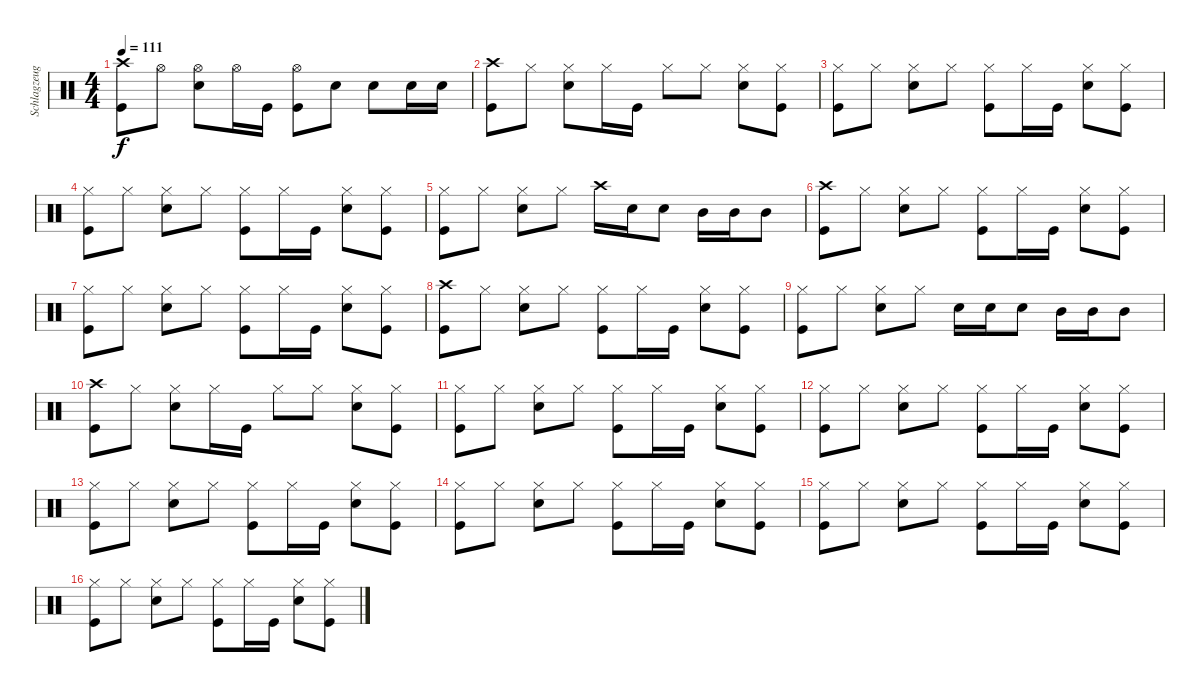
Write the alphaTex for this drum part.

\track ("Schlagzeug" "Schlagzeug") {solo instrument percussion}
\staff {score}
\articulation defaults
\ts (4 4)
\tempo 111
\clef neutral
\ks c
("Crash high (hit)" "Kick (hit)").8{dy f} "Hi-Hat (open)".8 ("Hi-Hat (open)" "Snare (hit) 2").8 "Hi-Hat (open)".16 "Kick (hit)".16 ("Kick (hit)" "Hi-Hat (open)").8 "Snare (hit) 2".8 "Snare (hit) 2".8 "Snare (hit) 2".16 "Snare (hit) 2".16 |
("Crash high (hit)" "Kick (hit)").8 "Hi-Hat (closed)".8 ("Hi-Hat (closed)" "Snare (hit) 2").8 "Hi-Hat (closed)".16 "Kick (hit)".16 "Hi-Hat (closed)".8 "Hi-Hat (closed)".8 ("Hi-Hat (closed)" "Snare (hit) 2").8 ("Kick (hit)" "Hi-Hat (closed)").8 |
("Kick (hit)" "Hi-Hat (closed)").8 "Hi-Hat (closed)".8 ("Hi-Hat (closed)" "Snare (hit) 2").8 "Hi-Hat (closed)".8 ("Hi-Hat (closed)" "Kick (hit)").8 "Hi-Hat (closed)".16 "Kick (hit)".16 ("Hi-Hat (closed)" "Snare (hit) 2").8 ("Hi-Hat (closed)" "Kick (hit)").8 |
("Kick (hit)" "Hi-Hat (closed)").8 "Hi-Hat (closed)".8 ("Hi-Hat (closed)" "Snare (hit) 2").8 "Hi-Hat (closed)".8 ("Hi-Hat (closed)" "Kick (hit)").8 "Hi-Hat (closed)".16 "Kick (hit)".16 ("Hi-Hat (closed)" "Snare (hit) 2").8 ("Hi-Hat (closed)" "Kick (hit)").8 |
("Kick (hit)" "Hi-Hat (closed)").8 "Hi-Hat (closed)".8 ("Hi-Hat (closed)" "Snare (hit) 2").8 "Hi-Hat (closed)".8 "Crash high (hit)".16 "Snare (hit) 2".16 "Snare (hit) 2".8 "Mid Tom (hit)".16 "Mid Tom (hit)".16 "Mid Tom (hit)".8 |
("Kick (hit)" "Crash high (hit)").8 "Hi-Hat (closed)".8 ("Hi-Hat (closed)" "Snare (hit) 2").8 "Hi-Hat (closed)".8 ("Hi-Hat (closed)" "Kick (hit)").8 "Hi-Hat (closed)".16 "Kick (hit)".16 ("Hi-Hat (closed)" "Snare (hit) 2").8 ("Hi-Hat (closed)" "Kick (hit)").8 |
("Kick (hit)" "Hi-Hat (closed)").8 "Hi-Hat (closed)".8 ("Hi-Hat (closed)" "Snare (hit) 2").8 "Hi-Hat (closed)".8 ("Hi-Hat (closed)" "Kick (hit)").8 "Hi-Hat (closed)".16 "Kick (hit)".16 ("Hi-Hat (closed)" "Snare (hit) 2").8 ("Hi-Hat (closed)" "Kick (hit)").8 |
("Kick (hit)" "Crash high (hit)").8 "Hi-Hat (closed)".8 ("Hi-Hat (closed)" "Snare (hit) 2").8 "Hi-Hat (closed)".8 ("Hi-Hat (closed)" "Kick (hit)").8 "Hi-Hat (closed)".16 "Kick (hit)".16 ("Hi-Hat (closed)" "Snare (hit) 2").8 ("Hi-Hat (closed)" "Kick (hit)").8 |
("Kick (hit)" "Hi-Hat (closed)").8 "Hi-Hat (closed)".8 ("Hi-Hat (closed)" "Snare (hit) 2").8 "Hi-Hat (closed)".8 "Snare (hit) 2".16 "Snare (hit) 2".16 "Snare (hit) 2".8 "Mid Tom (hit)".16 "Mid Tom (hit)".16 "Mid Tom (hit)".8 |
("Crash high (hit)" "Kick (hit)").8 "Hi-Hat (closed)".8 ("Hi-Hat (closed)" "Snare (hit) 2").8 "Hi-Hat (closed)".16 "Kick (hit)".16 "Hi-Hat (closed)".8 "Hi-Hat (closed)".8 ("Hi-Hat (closed)" "Snare (hit) 2").8 ("Kick (hit)" "Hi-Hat (closed)").8 |
("Kick (hit)" "Hi-Hat (closed)").8 "Hi-Hat (closed)".8 ("Hi-Hat (closed)" "Snare (hit) 2").8 "Hi-Hat (closed)".8 ("Hi-Hat (closed)" "Kick (hit)").8 "Hi-Hat (closed)".16 "Kick (hit)".16 ("Hi-Hat (closed)" "Snare (hit) 2").8 ("Hi-Hat (closed)" "Kick (hit)").8 |
("Kick (hit)" "Hi-Hat (closed)").8 "Hi-Hat (closed)".8 ("Hi-Hat (closed)" "Snare (hit) 2").8 "Hi-Hat (closed)".8 ("Hi-Hat (closed)" "Kick (hit)").8 "Hi-Hat (closed)".16 "Kick (hit)".16 ("Hi-Hat (closed)" "Snare (hit) 2").8 ("Hi-Hat (closed)" "Kick (hit)").8 |
("Kick (hit)" "Hi-Hat (closed)").8 "Hi-Hat (closed)".8 ("Hi-Hat (closed)" "Snare (hit) 2").8 "Hi-Hat (closed)".8 ("Hi-Hat (closed)" "Kick (hit)").8 "Hi-Hat (closed)".16 "Kick (hit)".16 ("Hi-Hat (closed)" "Snare (hit) 2").8 ("Hi-Hat (closed)" "Kick (hit)").8 |
("Kick (hit)" "Hi-Hat (closed)").8 "Hi-Hat (closed)".8 ("Hi-Hat (closed)" "Snare (hit) 2").8 "Hi-Hat (closed)".8 ("Hi-Hat (closed)" "Kick (hit)").8 "Hi-Hat (closed)".16 "Kick (hit)".16 ("Hi-Hat (closed)" "Snare (hit) 2").8 ("Hi-Hat (closed)" "Kick (hit)").8 |
("Kick (hit)" "Hi-Hat (closed)").8 "Hi-Hat (closed)".8 ("Hi-Hat (closed)" "Snare (hit) 2").8 "Hi-Hat (closed)".8 ("Hi-Hat (closed)" "Kick (hit)").8 "Hi-Hat (closed)".16 "Kick (hit)".16 ("Hi-Hat (closed)" "Snare (hit) 2").8 ("Hi-Hat (closed)" "Kick (hit)").8 |
("Kick (hit)" "Hi-Hat (closed)").8 "Hi-Hat (closed)".8 ("Hi-Hat (closed)" "Snare (hit) 2").8 "Hi-Hat (closed)".8 ("Hi-Hat (closed)" "Kick (hit)").8 "Hi-Hat (closed)".16 "Kick (hit)".16 ("Hi-Hat (closed)" "Snare (hit) 2").8 ("Hi-Hat (closed)" "Kick (hit)").8
